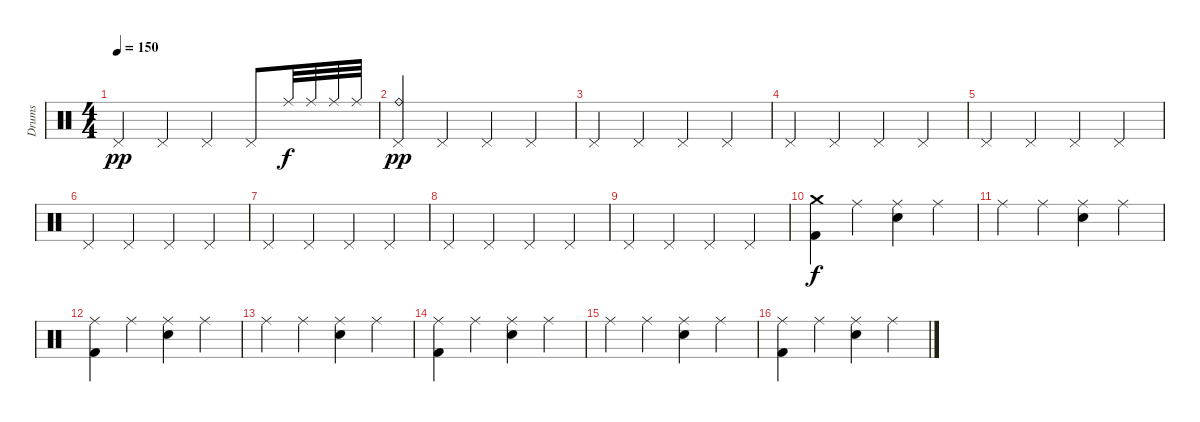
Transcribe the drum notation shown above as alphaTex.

\track ("Drums" "Drums") {instrument percussion}
\staff {score}
\articulation defaults
\ts (4 4)
\tempo 150
\clef neutral
\ks c "Pedal Hi-Hat (hit)".4{dy pp} "Pedal Hi-Hat (hit)".4 "Pedal Hi-Hat (hit)".4 "Pedal Hi-Hat (hit)".8 "Ride (middle)".32{dy f} "Ride (middle)".32 "Ride (middle)".32 "Ride (middle)".32
|
("Pedal Hi-Hat (hit)" "Ride (bell)").4{dy pp} "Pedal Hi-Hat (hit)".4 "Pedal Hi-Hat (hit)".4 "Pedal Hi-Hat (hit)".4 |
"Pedal Hi-Hat (hit)".4 "Pedal Hi-Hat (hit)".4 "Pedal Hi-Hat (hit)".4 "Pedal Hi-Hat (hit)".4 |
"Pedal Hi-Hat (hit)".4 "Pedal Hi-Hat (hit)".4 "Pedal Hi-Hat (hit)".4 "Pedal Hi-Hat (hit)".4 |
"Pedal Hi-Hat (hit)".4 "Pedal Hi-Hat (hit)".4 "Pedal Hi-Hat (hit)".4 "Pedal Hi-Hat (hit)".4 |
"Pedal Hi-Hat (hit)".4 "Pedal Hi-Hat (hit)".4 "Pedal Hi-Hat (hit)".4 "Pedal Hi-Hat (hit)".4 |
"Pedal Hi-Hat (hit)".4 "Pedal Hi-Hat (hit)".4 "Pedal Hi-Hat (hit)".4 "Pedal Hi-Hat (hit)".4 |
"Pedal Hi-Hat (hit)".4 "Pedal Hi-Hat (hit)".4 "Pedal Hi-Hat (hit)".4 "Pedal Hi-Hat (hit)".4 |
"Pedal Hi-Hat (hit)".4 "Pedal Hi-Hat (hit)".4 "Pedal Hi-Hat (hit)".4 "Pedal Hi-Hat (hit)".4 |
("Crash medium (hit)" "Kick (hit) 2").4{dy f} "Ride (middle)".4 ("Ride (middle)" "Snare (hit) 2").4 "Ride (middle)".4 |
"Ride (middle)".4 "Ride (middle)".4 ("Ride (middle)" "Snare (hit) 2").4 "Ride (middle)".4 |
("Ride (middle)" "Kick (hit) 2").4 "Ride (middle)".4 ("Ride (middle)" "Snare (hit) 2").4 "Ride (middle)".4 |
"Ride (middle)".4 "Ride (middle)".4 ("Ride (middle)" "Snare (hit) 2").4 "Ride (middle)".4 |
("Ride (middle)" "Kick (hit) 2").4 "Ride (middle)".4 ("Ride (middle)" "Snare (hit) 2").4 "Ride (middle)".4 |
"Ride (middle)".4 "Ride (middle)".4 ("Ride (middle)" "Snare (hit) 2").4 "Ride (middle)".4 |
("Ride (middle)" "Kick (hit) 2").4 "Ride (middle)".4 ("Ride (middle)" "Snare (hit) 2").4 "Ride (middle)".4
